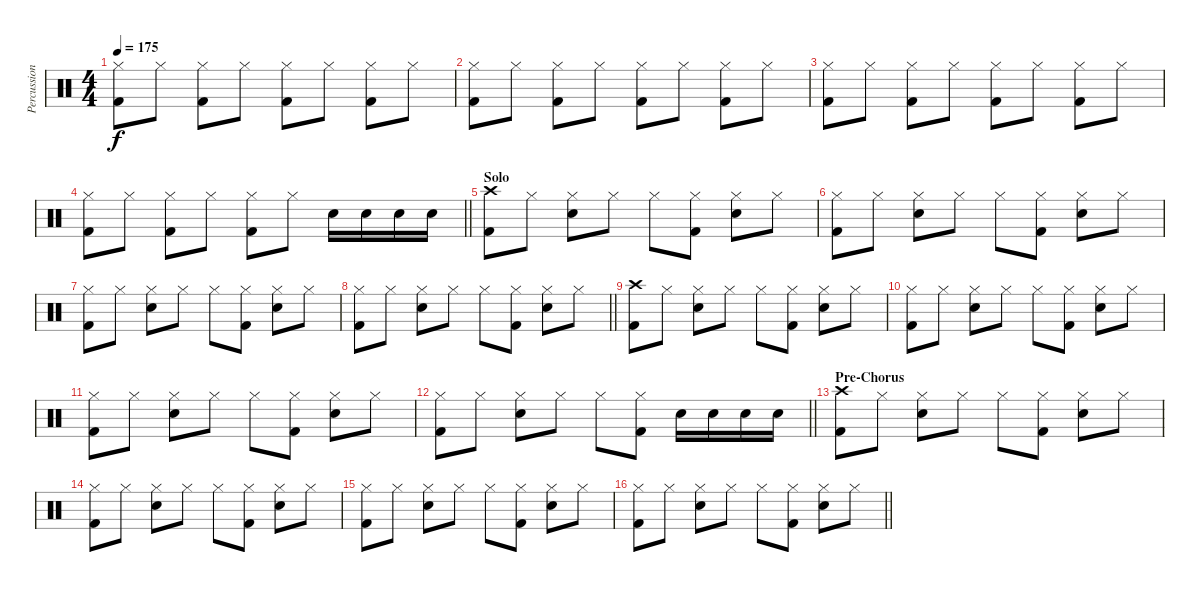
\track ("Percussion" "Percussion") {instrument percussion}
\staff {score}
\articulation defaults
\ts (4 4)
\tempo 175
\clef neutral
\ks c
("Hi-Hat (closed)" "Kick (hit) 2").8{dy f} "Hi-Hat (closed)".8 ("Hi-Hat (closed)" "Kick (hit) 2").8 "Hi-Hat (closed)".8 ("Hi-Hat (closed)" "Kick (hit) 2").8 "Hi-Hat (closed)".8 ("Hi-Hat (closed)" "Kick (hit) 2").8 "Hi-Hat (closed)".8 |
("Hi-Hat (closed)" "Kick (hit) 2").8 "Hi-Hat (closed)".8 ("Hi-Hat (closed)" "Kick (hit) 2").8 "Hi-Hat (closed)".8 ("Hi-Hat (closed)" "Kick (hit) 2").8 "Hi-Hat (closed)".8 ("Hi-Hat (closed)" "Kick (hit) 2").8 "Hi-Hat (closed)".8 |
("Hi-Hat (closed)" "Kick (hit) 2").8 "Hi-Hat (closed)".8 ("Hi-Hat (closed)" "Kick (hit) 2").8 "Hi-Hat (closed)".8 ("Hi-Hat (closed)" "Kick (hit) 2").8 "Hi-Hat (closed)".8 ("Hi-Hat (closed)" "Kick (hit) 2").8 "Hi-Hat (closed)".8 |
\barLineRight lightlight
("Hi-Hat (closed)" "Kick (hit) 2").8 "Hi-Hat (closed)".8 ("Hi-Hat (closed)" "Kick (hit) 2").8 "Hi-Hat (closed)".8 ("Hi-Hat (closed)" "Kick (hit) 2").8 "Hi-Hat (closed)".8 "Snare (hit) 2".16 "Snare (hit) 2".16 "Snare (hit) 2".16 "Snare (hit) 2".16 |
\section ("" "Solo")
("Crash high (hit)" "Kick (hit) 2").8 "Hi-Hat (closed)".8 ("Hi-Hat (closed)" "Snare (hit) 2").8 "Hi-Hat (closed)".8 "Hi-Hat (closed)".8 ("Hi-Hat (closed)" "Kick (hit) 2").8 ("Hi-Hat (closed)" "Snare (hit) 2").8 "Hi-Hat (closed)".8 |
("Hi-Hat (closed)" "Kick (hit) 2").8 "Hi-Hat (closed)".8 ("Hi-Hat (closed)" "Snare (hit) 2").8 "Hi-Hat (closed)".8 "Hi-Hat (closed)".8 ("Hi-Hat (closed)" "Kick (hit) 2").8 ("Hi-Hat (closed)" "Snare (hit) 2").8 "Hi-Hat (closed)".8 |
("Hi-Hat (closed)" "Kick (hit) 2").8 "Hi-Hat (closed)".8 ("Hi-Hat (closed)" "Snare (hit) 2").8 "Hi-Hat (closed)".8 "Hi-Hat (closed)".8 ("Hi-Hat (closed)" "Kick (hit) 2").8 ("Hi-Hat (closed)" "Snare (hit) 2").8 "Hi-Hat (closed)".8 |
\barLineRight lightlight
("Hi-Hat (closed)" "Kick (hit) 2").8 "Hi-Hat (closed)".8 ("Hi-Hat (closed)" "Snare (hit) 2").8 "Hi-Hat (closed)".8 "Hi-Hat (closed)".8 ("Hi-Hat (closed)" "Kick (hit) 2").8 ("Hi-Hat (closed)" "Snare (hit) 2").8 "Hi-Hat (closed)".8 |
("Crash high (hit)" "Kick (hit) 2").8 "Hi-Hat (closed)".8 ("Hi-Hat (closed)" "Snare (hit) 2").8 "Hi-Hat (closed)".8 "Hi-Hat (closed)".8 ("Hi-Hat (closed)" "Kick (hit) 2").8 ("Hi-Hat (closed)" "Snare (hit) 2").8 "Hi-Hat (closed)".8 |
("Hi-Hat (closed)" "Kick (hit) 2").8 "Hi-Hat (closed)".8 ("Hi-Hat (closed)" "Snare (hit) 2").8 "Hi-Hat (closed)".8 "Hi-Hat (closed)".8 ("Hi-Hat (closed)" "Kick (hit) 2").8 ("Hi-Hat (closed)" "Snare (hit) 2").8 "Hi-Hat (closed)".8 |
("Hi-Hat (closed)" "Kick (hit) 2").8 "Hi-Hat (closed)".8 ("Hi-Hat (closed)" "Snare (hit) 2").8 "Hi-Hat (closed)".8 "Hi-Hat (closed)".8 ("Hi-Hat (closed)" "Kick (hit) 2").8 ("Hi-Hat (closed)" "Snare (hit) 2").8 "Hi-Hat (closed)".8 |
\barLineRight lightlight
("Hi-Hat (closed)" "Kick (hit) 2").8 "Hi-Hat (closed)".8 ("Hi-Hat (closed)" "Snare (hit) 2").8 "Hi-Hat (closed)".8 "Hi-Hat (closed)".8 ("Hi-Hat (closed)" "Kick (hit) 2").8 "Snare (hit) 2".16 "Snare (hit) 2".16 "Snare (hit) 2".16 "Snare (hit) 2".16 |
\section ("" "Pre-Chorus")
("Crash high (hit)" "Kick (hit) 2").8 "Hi-Hat (closed)".8 ("Hi-Hat (closed)" "Snare (hit) 2").8 "Hi-Hat (closed)".8 "Hi-Hat (closed)".8 ("Hi-Hat (closed)" "Kick (hit) 2").8 ("Hi-Hat (closed)" "Snare (hit) 2").8 "Hi-Hat (closed)".8 |
("Hi-Hat (closed)" "Kick (hit) 2").8 "Hi-Hat (closed)".8 ("Hi-Hat (closed)" "Snare (hit) 2").8 "Hi-Hat (closed)".8 "Hi-Hat (closed)".8 ("Hi-Hat (closed)" "Kick (hit) 2").8 ("Hi-Hat (closed)" "Snare (hit) 2").8 "Hi-Hat (closed)".8 |
("Hi-Hat (closed)" "Kick (hit) 2").8 "Hi-Hat (closed)".8 ("Hi-Hat (closed)" "Snare (hit) 2").8 "Hi-Hat (closed)".8 "Hi-Hat (closed)".8 ("Hi-Hat (closed)" "Kick (hit) 2").8 ("Hi-Hat (closed)" "Snare (hit) 2").8 "Hi-Hat (closed)".8 |
\barLineRight lightlight
("Hi-Hat (closed)" "Kick (hit) 2").8 "Hi-Hat (closed)".8 ("Hi-Hat (closed)" "Snare (hit) 2").8 "Hi-Hat (closed)".8 "Hi-Hat (closed)".8 ("Hi-Hat (closed)" "Kick (hit) 2").8 ("Hi-Hat (closed)" "Snare (hit) 2").8 "Hi-Hat (closed)".8
